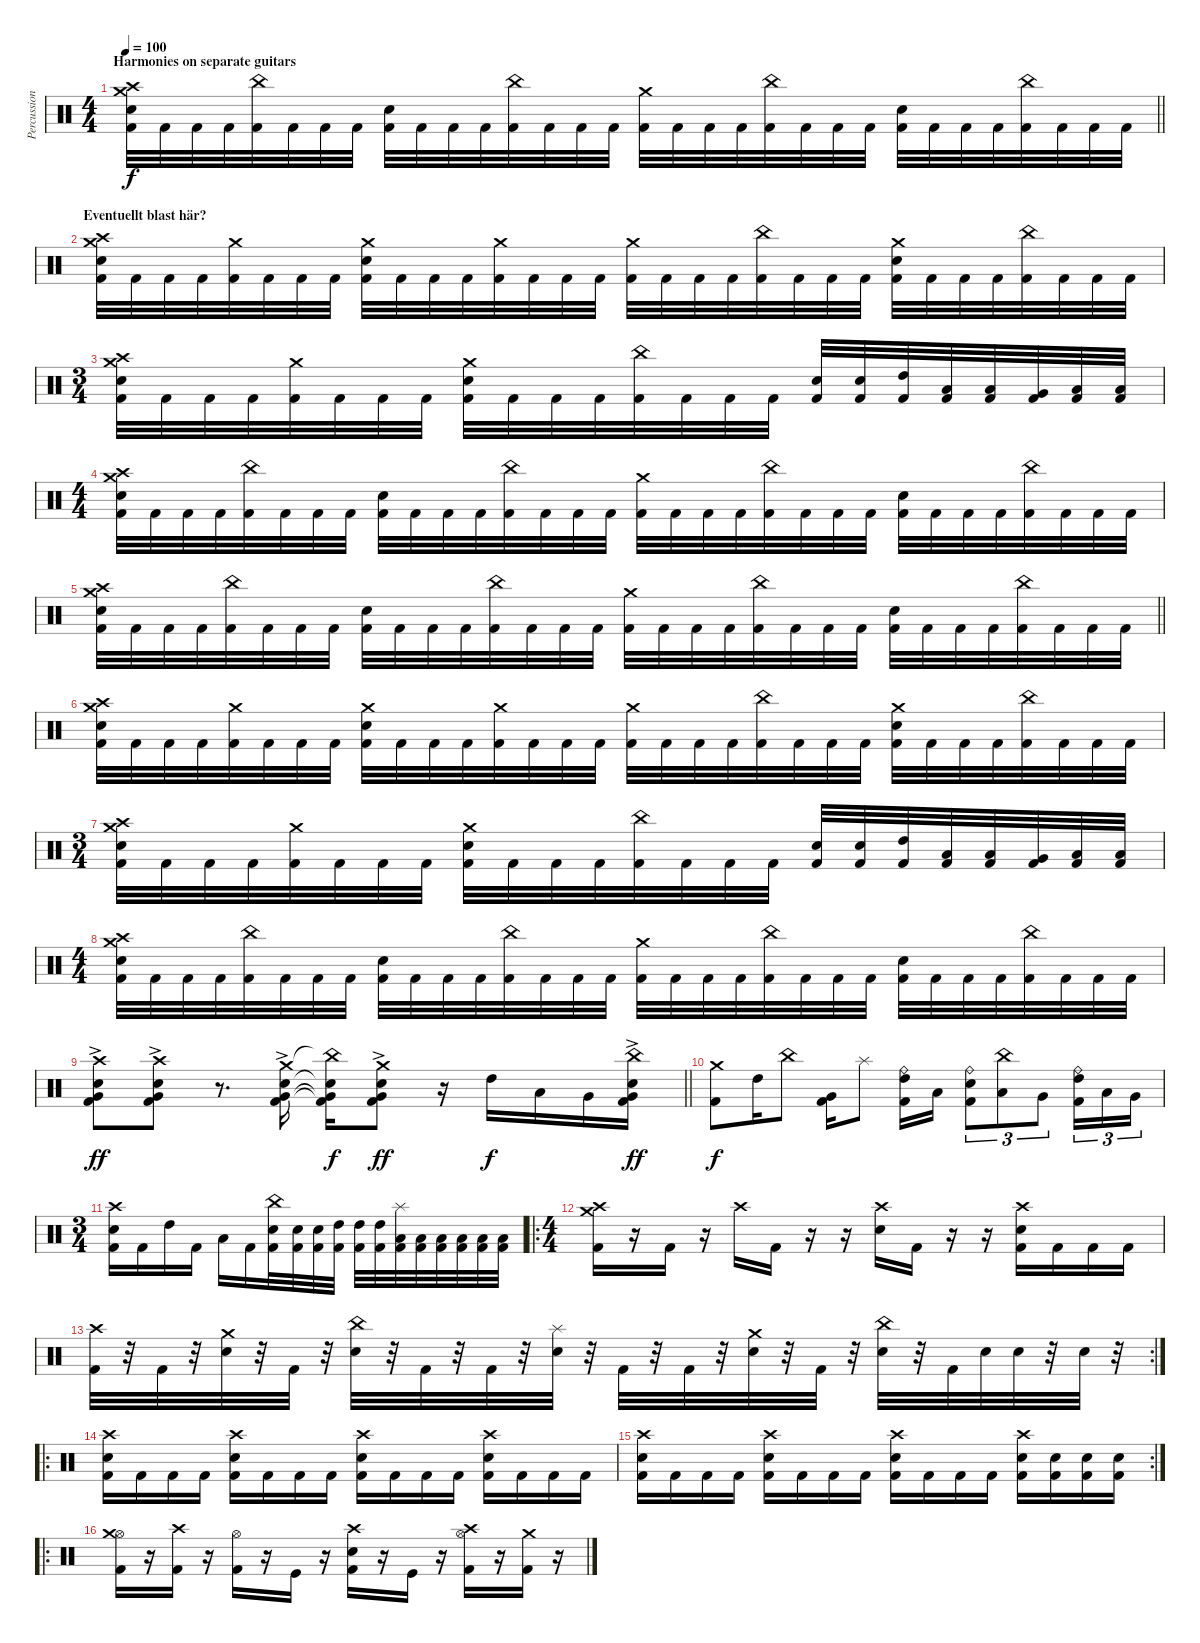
\track ("Percussion" "Percussion") {mute instrument percussion}
\staff {score}
\articulation defaults
\ts (4 4)
\section ("" "Harmonies on separate guitars")
\tempo 100
\clef neutral
\barLineRight lightlight
\ks c
("Crash high (hit)" "Crash medium (hit)" "Electric Snare (hit)" "Kick (hit) 2").32{dy f} "Kick (hit) 2".32 "Kick (hit) 2".32 "Kick (hit) 2".32 ("China (hit)" "Kick (hit) 2").32 "Kick (hit) 2".32 "Kick (hit) 2".32 "Kick (hit) 2".32 ("Electric Snare (hit)" "Kick (hit) 2").32 "Kick (hit) 2".32 "Kick (hit) 2".32 "Kick (hit) 2".32 ("China (hit)" "Kick (hit) 2").32 "Kick (hit) 2".32 "Kick (hit) 2".32 "Kick (hit) 2".32 ("Crash medium (hit)" "Kick (hit) 2").32 "Kick (hit) 2".32 "Kick (hit) 2".32 "Kick (hit) 2".32 ("China (hit)" "Kick (hit) 2").32 "Kick (hit) 2".32 "Kick (hit) 2".32 "Kick (hit) 2".32 ("Electric Snare (hit)" "Kick (hit) 2").32 "Kick (hit) 2".32 "Kick (hit) 2".32 "Kick (hit) 2".32 ("China (hit)" "Kick (hit) 2").32 "Kick (hit) 2".32 "Kick (hit) 2".32 "Kick (hit) 2".32 |
\section ("" "Eventuellt blast här?")
("Crash high (hit)" "Crash medium (hit)" "Electric Snare (hit)" "Kick (hit) 2").32 "Kick (hit) 2".32 "Kick (hit) 2".32 "Kick (hit) 2".32 ("Crash medium (hit)" "Kick (hit) 2").32 "Kick (hit) 2".32 "Kick (hit) 2".32 "Kick (hit) 2".32 ("Crash medium (hit)" "Electric Snare (hit)" "Kick (hit) 2").32 "Kick (hit) 2".32 "Kick (hit) 2".32 "Kick (hit) 2".32 ("Crash medium (hit)" "Kick (hit) 2").32 "Kick (hit) 2".32 "Kick (hit) 2".32 "Kick (hit) 2".32 ("Crash medium (hit)" "Kick (hit) 2").32 "Kick (hit) 2".32 "Kick (hit) 2".32 "Kick (hit) 2".32 ("China (hit)" "Kick (hit) 2").32 "Kick (hit) 2".32 "Kick (hit) 2".32 "Kick (hit) 2".32 ("Crash medium (hit)" "Electric Snare (hit)" "Kick (hit) 2").32 "Kick (hit) 2".32 "Kick (hit) 2".32 "Kick (hit) 2".32 ("China (hit)" "Kick (hit) 2").32 "Kick (hit) 2".32 "Kick (hit) 2".32 "Kick (hit) 2".32 |
\ts (3 4)
("Crash high (hit)" "Crash medium (hit)" "Electric Snare (hit)" "Kick (hit) 2").32 "Kick (hit) 2".32 "Kick (hit) 2".32 "Kick (hit) 2".32 ("Crash medium (hit)" "Kick (hit) 2").32 "Kick (hit) 2".32 "Kick (hit) 2".32 "Kick (hit) 2".32 ("Crash medium (hit)" "Electric Snare (hit)" "Kick (hit) 2").32 "Kick (hit) 2".32 "Kick (hit) 2".32 "Kick (hit) 2".32 ("China (hit)" "Kick (hit) 2").32 "Kick (hit) 2".32 "Kick (hit) 2".32 "Kick (hit) 2".32 ("Electric Snare (hit)" "Kick (hit) 2").32 ("Electric Snare (hit)" "Kick (hit) 2").32 ("High Tom (hit)" "Kick (hit) 2").32 ("Low Tom (hit)" "Kick (hit) 2").32 ("Low Tom (hit)" "Kick (hit) 2").32 ("Very Low Tom (hit)" "Kick (hit) 2").32 ("Low Floor Tom (hit)" "Kick (hit) 2").32 ("Low Floor Tom (hit)" "Kick (hit) 2").32 |
\ts (4 4)
("Crash high (hit)" "Crash medium (hit)" "Electric Snare (hit)" "Kick (hit) 2").32 "Kick (hit) 2".32 "Kick (hit) 2".32 "Kick (hit) 2".32 ("China (hit)" "Kick (hit) 2").32 "Kick (hit) 2".32 "Kick (hit) 2".32 "Kick (hit) 2".32 ("Electric Snare (hit)" "Kick (hit) 2").32 "Kick (hit) 2".32 "Kick (hit) 2".32 "Kick (hit) 2".32 ("China (hit)" "Kick (hit) 2").32 "Kick (hit) 2".32 "Kick (hit) 2".32 "Kick (hit) 2".32 ("Crash medium (hit)" "Kick (hit) 2").32 "Kick (hit) 2".32 "Kick (hit) 2".32 "Kick (hit) 2".32 ("China (hit)" "Kick (hit) 2").32 "Kick (hit) 2".32 "Kick (hit) 2".32 "Kick (hit) 2".32 ("Electric Snare (hit)" "Kick (hit) 2").32 "Kick (hit) 2".32 "Kick (hit) 2".32 "Kick (hit) 2".32 ("China (hit)" "Kick (hit) 2").32 "Kick (hit) 2".32 "Kick (hit) 2".32 "Kick (hit) 2".32 |
\barLineRight lightlight
("Crash high (hit)" "Crash medium (hit)" "Electric Snare (hit)" "Kick (hit) 2").32 "Kick (hit) 2".32 "Kick (hit) 2".32 "Kick (hit) 2".32 ("China (hit)" "Kick (hit) 2").32 "Kick (hit) 2".32 "Kick (hit) 2".32 "Kick (hit) 2".32 ("Electric Snare (hit)" "Kick (hit) 2").32 "Kick (hit) 2".32 "Kick (hit) 2".32 "Kick (hit) 2".32 ("China (hit)" "Kick (hit) 2").32 "Kick (hit) 2".32 "Kick (hit) 2".32 "Kick (hit) 2".32 ("Crash medium (hit)" "Kick (hit) 2").32 "Kick (hit) 2".32 "Kick (hit) 2".32 "Kick (hit) 2".32 ("China (hit)" "Kick (hit) 2").32 "Kick (hit) 2".32 "Kick (hit) 2".32 "Kick (hit) 2".32 ("Electric Snare (hit)" "Kick (hit) 2").32 "Kick (hit) 2".32 "Kick (hit) 2".32 "Kick (hit) 2".32 ("China (hit)" "Kick (hit) 2").32 "Kick (hit) 2".32 "Kick (hit) 2".32 "Kick (hit) 2".32 |
("Crash high (hit)" "Crash medium (hit)" "Electric Snare (hit)" "Kick (hit) 2").32 "Kick (hit) 2".32 "Kick (hit) 2".32 "Kick (hit) 2".32 ("Crash medium (hit)" "Kick (hit) 2").32 "Kick (hit) 2".32 "Kick (hit) 2".32 "Kick (hit) 2".32 ("Crash medium (hit)" "Electric Snare (hit)" "Kick (hit) 2").32 "Kick (hit) 2".32 "Kick (hit) 2".32 "Kick (hit) 2".32 ("Crash medium (hit)" "Kick (hit) 2").32 "Kick (hit) 2".32 "Kick (hit) 2".32 "Kick (hit) 2".32 ("Crash medium (hit)" "Kick (hit) 2").32 "Kick (hit) 2".32 "Kick (hit) 2".32 "Kick (hit) 2".32 ("China (hit)" "Kick (hit) 2").32 "Kick (hit) 2".32 "Kick (hit) 2".32 "Kick (hit) 2".32 ("Crash medium (hit)" "Electric Snare (hit)" "Kick (hit) 2").32 "Kick (hit) 2".32 "Kick (hit) 2".32 "Kick (hit) 2".32 ("China (hit)" "Kick (hit) 2").32 "Kick (hit) 2".32 "Kick (hit) 2".32 "Kick (hit) 2".32 |
\ts (3 4)
("Crash high (hit)" "Crash medium (hit)" "Electric Snare (hit)" "Kick (hit) 2").32 "Kick (hit) 2".32 "Kick (hit) 2".32 "Kick (hit) 2".32 ("Crash medium (hit)" "Kick (hit) 2").32 "Kick (hit) 2".32 "Kick (hit) 2".32 "Kick (hit) 2".32 ("Crash medium (hit)" "Electric Snare (hit)" "Kick (hit) 2").32 "Kick (hit) 2".32 "Kick (hit) 2".32 "Kick (hit) 2".32 ("China (hit)" "Kick (hit) 2").32 "Kick (hit) 2".32 "Kick (hit) 2".32 "Kick (hit) 2".32 ("Electric Snare (hit)" "Kick (hit) 2").32 ("Electric Snare (hit)" "Kick (hit) 2").32 ("High Tom (hit)" "Kick (hit) 2").32 ("Low Tom (hit)" "Kick (hit) 2").32 ("Low Tom (hit)" "Kick (hit) 2").32 ("Very Low Tom (hit)" "Kick (hit) 2").32 ("Low Floor Tom (hit)" "Kick (hit) 2").32 ("Low Floor Tom (hit)" "Kick (hit) 2").32 |
\ts (4 4)
("Crash high (hit)" "Crash medium (hit)" "Electric Snare (hit)" "Kick (hit) 2").32 "Kick (hit) 2".32 "Kick (hit) 2".32 "Kick (hit) 2".32 ("China (hit)" "Kick (hit) 2").32 "Kick (hit) 2".32 "Kick (hit) 2".32 "Kick (hit) 2".32 ("Electric Snare (hit)" "Kick (hit) 2").32 "Kick (hit) 2".32 "Kick (hit) 2".32 "Kick (hit) 2".32 ("China (hit)" "Kick (hit) 2").32 "Kick (hit) 2".32 "Kick (hit) 2".32 "Kick (hit) 2".32 ("Crash medium (hit)" "Kick (hit) 2").32 "Kick (hit) 2".32 "Kick (hit) 2".32 "Kick (hit) 2".32 ("China (hit)" "Kick (hit) 2").32 "Kick (hit) 2".32 "Kick (hit) 2".32 "Kick (hit) 2".32 ("Electric Snare (hit)" "Kick (hit) 2").32 "Kick (hit) 2".32 "Kick (hit) 2".32 "Kick (hit) 2".32 ("China (hit)" "Kick (hit) 2").32 "Kick (hit) 2".32 "Kick (hit) 2".32 "Kick (hit) 2".32 |
\barLineRight lightlight
("Crash high (hit)" "Electric Snare (hit)" "Very Low Tom (hit)"{ac} "Kick (hit) 2").8{dy ff} ("Crash high (hit)" "Electric Snare (hit)" "Very Low Tom (hit)"{ac} "Kick (hit) 2").8 r.8{d} ("Crash medium (hit)" "Electric Snare (hit)" "Very Low Tom (hit)"{ac} "Kick (hit) 2").16 ("China (hit)"{t} "Electric Snare (hit)"{t} "Very Low Tom (hit)"{t} "Kick (hit) 2"{t}).16{dy f} ("Crash medium (hit)" "Electric Snare (hit)" "Very Low Tom (hit)"{ac} "Kick (hit) 2").8{dy ff} r.16 "High Tom (hit)".16{dy f} "Low Tom (hit)".16 "Very Low Tom (hit)".16 ("China (hit)" "Electric Snare (hit)" "Very Low Tom (hit)"{ac} "Kick (hit) 2").16{dy ff} |
("Crash medium (hit)" "Kick (hit) 2").8{dy f} "High Tom (hit)".16 "China (hit)".8 ("Very Low Tom (hit)" "Kick (hit) 2").16 "Splash (hit)".8 ("Ride (bell)" "High Tom (hit)" "Kick (hit) 2").16 "Low Tom (hit)".16 ("Ride (bell)" "Electric Snare (hit)" "Kick (hit) 2").8{tu (3 2)} ("China (hit)" "Low Tom (hit)").8{tu (3 2)} "Very Low Tom (hit)".8{tu (3 2)} ("Ride (bell)" "High Tom (hit)" "Kick (hit) 2").16{tu (3 2)} "Low Tom (hit)".16{tu (3 2)} "Very Low Tom (hit)".16{tu (3 2)} |
\ts (3 4)
("Crash high (hit)" "Electric Snare (hit)" "Kick (hit) 2").16 "Kick (hit) 2".16 "High Tom (hit)".16 "Kick (hit) 2".16 "Low Tom (hit)".16 "Kick (hit) 2".16 ("China (hit)" "Electric Snare (hit)" "Kick (hit) 2").32 ("Electric Snare (hit)" "Kick (hit) 2").32 ("Electric Snare (hit)" "Kick (hit) 2").32 ("High Tom (hit)" "Kick (hit) 2").32 ("High Tom (hit)" "Kick (hit) 2").32 ("High Tom (hit)" "Kick (hit) 2").32 ("Splash (hit)" "Low Tom (hit)" "Kick (hit) 2").32 ("Low Tom (hit)" "Kick (hit) 2").32 ("Low Tom (hit)" "Kick (hit) 2").32 ("Low Floor Tom (hit)" "Kick (hit) 2").32 ("Low Floor Tom (hit)" "Kick (hit) 2").32 ("Low Floor Tom (hit)" "Kick (hit) 2").32 |
\ro
\ts (4 4)
("Crash high (hit)" "Crash medium (hit)" "Kick (hit) 2").16 r.16 "Kick (hit) 2".16 r.16 "Crash high (hit)".16 "Kick (hit) 2".16 r.16 r.16 ("Crash high (hit)" "Electric Snare (hit)").16 "Kick (hit) 2".16 r.16 r.16 ("Crash high (hit)" "Electric Snare (hit)" "Kick (hit) 2").16 "Kick (hit) 2".16 "Kick (hit) 2".16 "Kick (hit) 2".16 |
\rc 2
("Crash high (hit)" "Kick (hit) 2").32 r.32 "Kick (hit) 2".32 r.32 ("Crash medium (hit)" "Electric Snare (hit)").32 r.32 "Kick (hit) 2".32 r.32 ("China (hit)" "Electric Snare (hit)").32 r.32 "Kick (hit) 2".32 r.32 "Kick (hit) 2".32 r.32 ("Splash (hit)" "Electric Snare (hit)").32 r.32 "Kick (hit) 2".32 r.32 "Kick (hit) 2".32 r.32 ("Crash medium (hit)" "Electric Snare (hit)").32 r.32 "Kick (hit) 2".32 r.32 ("China (hit)" "Electric Snare (hit)").32 r.32 "Kick (hit) 2".32 "Electric Snare (hit)".32 "Electric Snare (hit)".32 r.32 "Electric Snare (hit)".32 r.32 |
\ro
("Crash high (hit)" "Electric Snare (hit)" "Kick (hit) 2").16 "Kick (hit) 2".16 "Kick (hit) 2".16 "Kick (hit) 2".16 ("Crash high (hit)" "Electric Snare (hit)" "Kick (hit) 2").16 "Kick (hit) 2".16 "Kick (hit) 2".16 "Kick (hit) 2".16 ("Crash high (hit)" "Electric Snare (hit)" "Kick (hit) 2").16 "Kick (hit) 2".16 "Kick (hit) 2".16 "Kick (hit) 2".16 ("Crash high (hit)" "Electric Snare (hit)" "Kick (hit) 2").16 "Kick (hit) 2".16 "Kick (hit) 2".16 "Kick (hit) 2".16 |
\rc 2
("Crash high (hit)" "Electric Snare (hit)" "Kick (hit) 2").16 "Kick (hit) 2".16 "Kick (hit) 2".16 "Kick (hit) 2".16 ("Crash high (hit)" "Electric Snare (hit)" "Kick (hit) 2").16 "Kick (hit) 2".16 "Kick (hit) 2".16 "Kick (hit) 2".16 ("Crash high (hit)" "Electric Snare (hit)" "Kick (hit) 2").16 "Kick (hit) 2".16 "Kick (hit) 2".16 "Kick (hit) 2".16 ("Crash high (hit)" "Electric Snare (hit)" "Kick (hit) 2").16 ("Electric Snare (hit)" "Kick (hit) 2").16 ("Electric Snare (hit)" "Kick (hit) 2").16 ("Electric Snare (hit)" "Kick (hit) 2").16 |
\ro
("Hi-Hat (open)" "Crash medium (hit)" "Kick (hit) 2").16 r.16 ("Crash high (hit)" "Kick (hit) 2").16 r.16 ("Hi-Hat (open)" "Kick (hit) 2").16 r.16 "Kick (hit)".16 r.16 ("Crash high (hit)" "Electric Snare (hit)" "Kick (hit) 2").16 r.16 "Kick (hit)".16 r.16 ("Hi-Hat (open)" "Crash high (hit)" "Kick (hit) 2").16 r.16 ("Crash medium (hit)" "Kick (hit) 2").16 r.16
